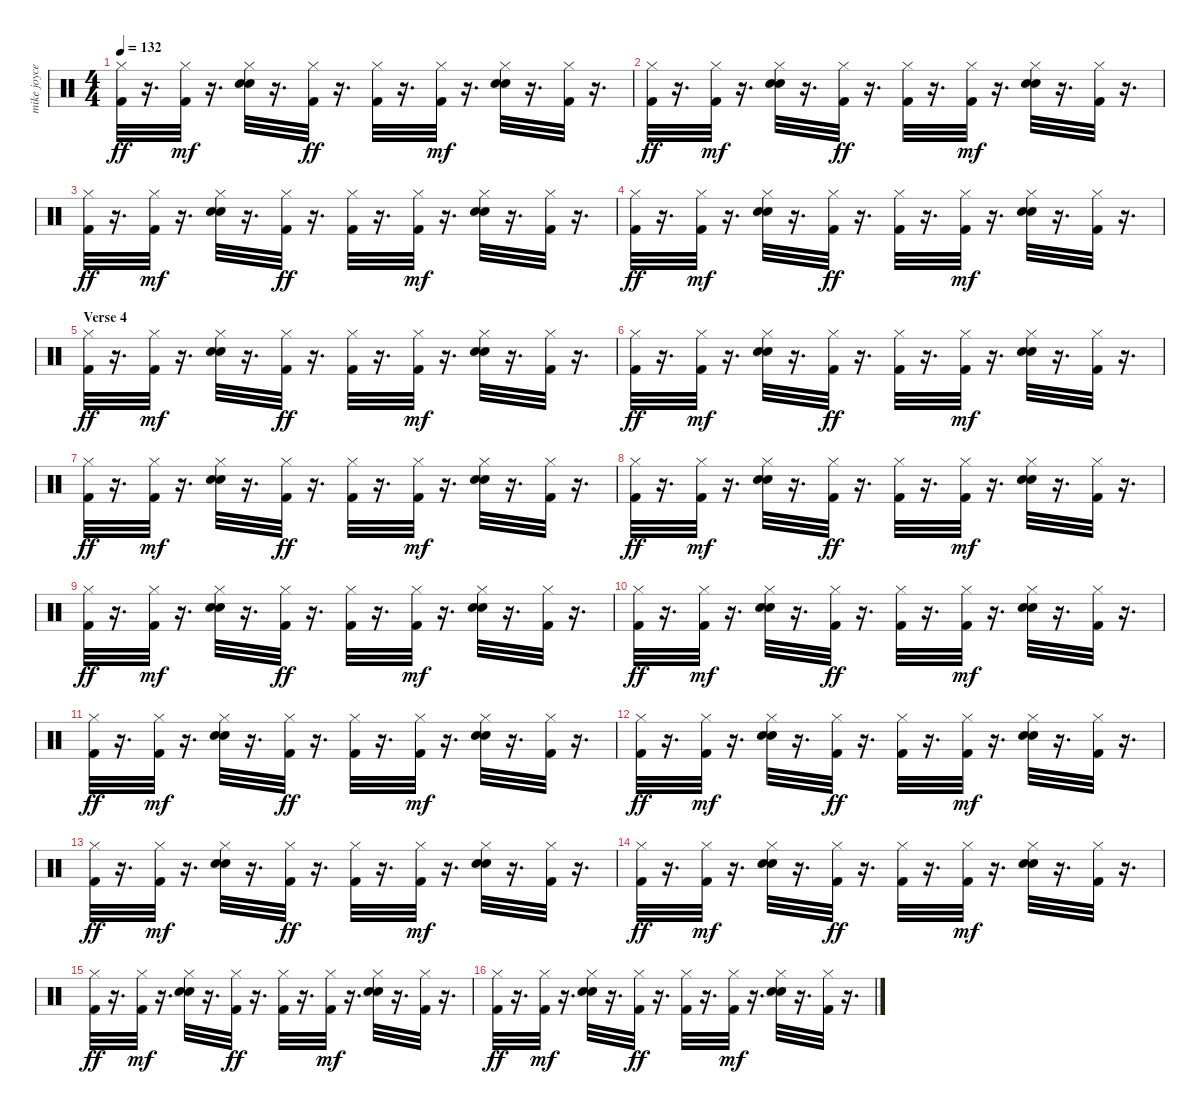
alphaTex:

\track ("mike joyce" "mike joyce") {instrument percussion}
\staff {score}
\articulation defaults
\ts (4 4)
\tempo 132
\clef neutral
\ks c
("Hi-Hat (closed)" "Kick (hit) 2").32{dy ff} r.16{d} ("Kick (hit) 2" "Hi-Hat (closed)").32{dy mf} r.16{d} ("Snare (hit) 2" "Electric Snare (hit)" "Hi-Hat (closed)").32 r.16{d} ("Hi-Hat (closed)" "Kick (hit) 2").32{dy ff} r.16{d} ("Hi-Hat (closed)" "Kick (hit) 2").32 r.16{d} ("Kick (hit) 2" "Hi-Hat (closed)").32{dy mf} r.16{d} ("Snare (hit) 2" "Electric Snare (hit)" "Hi-Hat (closed)").32 r.16{d} ("Kick (hit) 2" "Hi-Hat (closed)").32 r.16{d} |
("Hi-Hat (closed)" "Kick (hit) 2").32{dy ff} r.16{d} ("Kick (hit) 2" "Hi-Hat (closed)").32{dy mf} r.16{d} ("Snare (hit) 2" "Electric Snare (hit)" "Hi-Hat (closed)").32 r.16{d} ("Hi-Hat (closed)" "Kick (hit) 2").32{dy ff} r.16{d} ("Hi-Hat (closed)" "Kick (hit) 2").32 r.16{d} ("Kick (hit) 2" "Hi-Hat (closed)").32{dy mf} r.16{d} ("Snare (hit) 2" "Electric Snare (hit)" "Hi-Hat (closed)").32 r.16{d} ("Kick (hit) 2" "Hi-Hat (closed)").32 r.16{d} |
("Hi-Hat (closed)" "Kick (hit) 2").32{dy ff} r.16{d} ("Kick (hit) 2" "Hi-Hat (closed)").32{dy mf} r.16{d} ("Snare (hit) 2" "Electric Snare (hit)" "Hi-Hat (closed)").32 r.16{d} ("Hi-Hat (closed)" "Kick (hit) 2").32{dy ff} r.16{d} ("Hi-Hat (closed)" "Kick (hit) 2").32 r.16{d} ("Kick (hit) 2" "Hi-Hat (closed)").32{dy mf} r.16{d} ("Snare (hit) 2" "Electric Snare (hit)" "Hi-Hat (closed)").32 r.16{d} ("Kick (hit) 2" "Hi-Hat (closed)").32 r.16{d} |
("Hi-Hat (closed)" "Kick (hit) 2").32{dy ff} r.16{d} ("Kick (hit) 2" "Hi-Hat (closed)").32{dy mf} r.16{d} ("Snare (hit) 2" "Electric Snare (hit)" "Hi-Hat (closed)").32 r.16{d} ("Hi-Hat (closed)" "Kick (hit) 2").32{dy ff} r.16{d} ("Hi-Hat (closed)" "Kick (hit) 2").32 r.16{d} ("Kick (hit) 2" "Hi-Hat (closed)").32{dy mf} r.16{d} ("Snare (hit) 2" "Electric Snare (hit)" "Hi-Hat (closed)").32 r.16{d} ("Kick (hit) 2" "Hi-Hat (closed)").32 r.16{d} |
\section ("" "Verse 4")
("Hi-Hat (closed)" "Kick (hit) 2").32{dy ff} r.16{d} ("Kick (hit) 2" "Hi-Hat (closed)").32{dy mf} r.16{d} ("Snare (hit) 2" "Electric Snare (hit)" "Hi-Hat (closed)").32 r.16{d} ("Hi-Hat (closed)" "Kick (hit) 2").32{dy ff} r.16{d} ("Hi-Hat (closed)" "Kick (hit) 2").32 r.16{d} ("Kick (hit) 2" "Hi-Hat (closed)").32{dy mf} r.16{d} ("Snare (hit) 2" "Electric Snare (hit)" "Hi-Hat (closed)").32 r.16{d} ("Kick (hit) 2" "Hi-Hat (closed)").32 r.16{d} |
("Hi-Hat (closed)" "Kick (hit) 2").32{dy ff} r.16{d} ("Kick (hit) 2" "Hi-Hat (closed)").32{dy mf} r.16{d} ("Snare (hit) 2" "Electric Snare (hit)" "Hi-Hat (closed)").32 r.16{d} ("Hi-Hat (closed)" "Kick (hit) 2").32{dy ff} r.16{d} ("Hi-Hat (closed)" "Kick (hit) 2").32 r.16{d} ("Kick (hit) 2" "Hi-Hat (closed)").32{dy mf} r.16{d} ("Snare (hit) 2" "Electric Snare (hit)" "Hi-Hat (closed)").32 r.16{d} ("Kick (hit) 2" "Hi-Hat (closed)").32 r.16{d} |
("Hi-Hat (closed)" "Kick (hit) 2").32{dy ff} r.16{d} ("Kick (hit) 2" "Hi-Hat (closed)").32{dy mf} r.16{d} ("Snare (hit) 2" "Electric Snare (hit)" "Hi-Hat (closed)").32 r.16{d} ("Hi-Hat (closed)" "Kick (hit) 2").32{dy ff} r.16{d} ("Hi-Hat (closed)" "Kick (hit) 2").32 r.16{d} ("Kick (hit) 2" "Hi-Hat (closed)").32{dy mf} r.16{d} ("Snare (hit) 2" "Electric Snare (hit)" "Hi-Hat (closed)").32 r.16{d} ("Kick (hit) 2" "Hi-Hat (closed)").32 r.16{d} |
("Hi-Hat (closed)" "Kick (hit) 2").32{dy ff} r.16{d} ("Kick (hit) 2" "Hi-Hat (closed)").32{dy mf} r.16{d} ("Snare (hit) 2" "Electric Snare (hit)" "Hi-Hat (closed)").32 r.16{d} ("Hi-Hat (closed)" "Kick (hit) 2").32{dy ff} r.16{d} ("Hi-Hat (closed)" "Kick (hit) 2").32 r.16{d} ("Kick (hit) 2" "Hi-Hat (closed)").32{dy mf} r.16{d} ("Snare (hit) 2" "Electric Snare (hit)" "Hi-Hat (closed)").32 r.16{d} ("Kick (hit) 2" "Hi-Hat (closed)").32 r.16{d} |
("Hi-Hat (closed)" "Kick (hit) 2").32{dy ff} r.16{d} ("Kick (hit) 2" "Hi-Hat (closed)").32{dy mf} r.16{d} ("Snare (hit) 2" "Electric Snare (hit)" "Hi-Hat (closed)").32 r.16{d} ("Hi-Hat (closed)" "Kick (hit) 2").32{dy ff} r.16{d} ("Hi-Hat (closed)" "Kick (hit) 2").32 r.16{d} ("Kick (hit) 2" "Hi-Hat (closed)").32{dy mf} r.16{d} ("Snare (hit) 2" "Electric Snare (hit)" "Hi-Hat (closed)").32 r.16{d} ("Kick (hit) 2" "Hi-Hat (closed)").32 r.16{d} |
("Hi-Hat (closed)" "Kick (hit) 2").32{dy ff} r.16{d} ("Kick (hit) 2" "Hi-Hat (closed)").32{dy mf} r.16{d} ("Snare (hit) 2" "Electric Snare (hit)" "Hi-Hat (closed)").32 r.16{d} ("Hi-Hat (closed)" "Kick (hit) 2").32{dy ff} r.16{d} ("Hi-Hat (closed)" "Kick (hit) 2").32 r.16{d} ("Kick (hit) 2" "Hi-Hat (closed)").32{dy mf} r.16{d} ("Snare (hit) 2" "Electric Snare (hit)" "Hi-Hat (closed)").32 r.16{d} ("Kick (hit) 2" "Hi-Hat (closed)").32 r.16{d} |
("Hi-Hat (closed)" "Kick (hit) 2").32{dy ff} r.16{d} ("Kick (hit) 2" "Hi-Hat (closed)").32{dy mf} r.16{d} ("Snare (hit) 2" "Electric Snare (hit)" "Hi-Hat (closed)").32 r.16{d} ("Hi-Hat (closed)" "Kick (hit) 2").32{dy ff} r.16{d} ("Hi-Hat (closed)" "Kick (hit) 2").32 r.16{d} ("Kick (hit) 2" "Hi-Hat (closed)").32{dy mf} r.16{d} ("Snare (hit) 2" "Electric Snare (hit)" "Hi-Hat (closed)").32 r.16{d} ("Kick (hit) 2" "Hi-Hat (closed)").32 r.16{d} |
("Hi-Hat (closed)" "Kick (hit) 2").32{dy ff} r.16{d} ("Kick (hit) 2" "Hi-Hat (closed)").32{dy mf} r.16{d} ("Snare (hit) 2" "Electric Snare (hit)" "Hi-Hat (closed)").32 r.16{d} ("Hi-Hat (closed)" "Kick (hit) 2").32{dy ff} r.16{d} ("Hi-Hat (closed)" "Kick (hit) 2").32 r.16{d} ("Kick (hit) 2" "Hi-Hat (closed)").32{dy mf} r.16{d} ("Snare (hit) 2" "Electric Snare (hit)" "Hi-Hat (closed)").32 r.16{d} ("Kick (hit) 2" "Hi-Hat (closed)").32 r.16{d} |
("Hi-Hat (closed)" "Kick (hit) 2").32{dy ff} r.16{d} ("Kick (hit) 2" "Hi-Hat (closed)").32{dy mf} r.16{d} ("Snare (hit) 2" "Electric Snare (hit)" "Hi-Hat (closed)").32 r.16{d} ("Hi-Hat (closed)" "Kick (hit) 2").32{dy ff} r.16{d} ("Hi-Hat (closed)" "Kick (hit) 2").32 r.16{d} ("Kick (hit) 2" "Hi-Hat (closed)").32{dy mf} r.16{d} ("Snare (hit) 2" "Electric Snare (hit)" "Hi-Hat (closed)").32 r.16{d} ("Kick (hit) 2" "Hi-Hat (closed)").32 r.16{d} |
("Hi-Hat (closed)" "Kick (hit) 2").32{dy ff} r.16{d} ("Kick (hit) 2" "Hi-Hat (closed)").32{dy mf} r.16{d} ("Snare (hit) 2" "Electric Snare (hit)" "Hi-Hat (closed)").32 r.16{d} ("Hi-Hat (closed)" "Kick (hit) 2").32{dy ff} r.16{d} ("Hi-Hat (closed)" "Kick (hit) 2").32 r.16{d} ("Kick (hit) 2" "Hi-Hat (closed)").32{dy mf} r.16{d} ("Snare (hit) 2" "Electric Snare (hit)" "Hi-Hat (closed)").32 r.16{d} ("Kick (hit) 2" "Hi-Hat (closed)").32 r.16{d} |
("Hi-Hat (closed)" "Kick (hit) 2").32{dy ff} r.16{d} ("Kick (hit) 2" "Hi-Hat (closed)").32{dy mf} r.16{d} ("Snare (hit) 2" "Electric Snare (hit)" "Hi-Hat (closed)").32 r.16{d} ("Hi-Hat (closed)" "Kick (hit) 2").32{dy ff} r.16{d} ("Hi-Hat (closed)" "Kick (hit) 2").32 r.16{d} ("Kick (hit) 2" "Hi-Hat (closed)").32{dy mf} r.16{d} ("Snare (hit) 2" "Electric Snare (hit)" "Hi-Hat (closed)").32 r.16{d} ("Kick (hit) 2" "Hi-Hat (closed)").32 r.16{d} |
("Hi-Hat (closed)" "Kick (hit) 2").32{dy ff} r.16{d} ("Kick (hit) 2" "Hi-Hat (closed)").32{dy mf} r.16{d} ("Snare (hit) 2" "Electric Snare (hit)" "Hi-Hat (closed)").32 r.16{d} ("Hi-Hat (closed)" "Kick (hit) 2").32{dy ff} r.16{d} ("Hi-Hat (closed)" "Kick (hit) 2").32 r.16{d} ("Kick (hit) 2" "Hi-Hat (closed)").32{dy mf} r.16{d} ("Snare (hit) 2" "Electric Snare (hit)" "Hi-Hat (closed)").32 r.16{d} ("Kick (hit) 2" "Hi-Hat (closed)").32 r.16{d}
